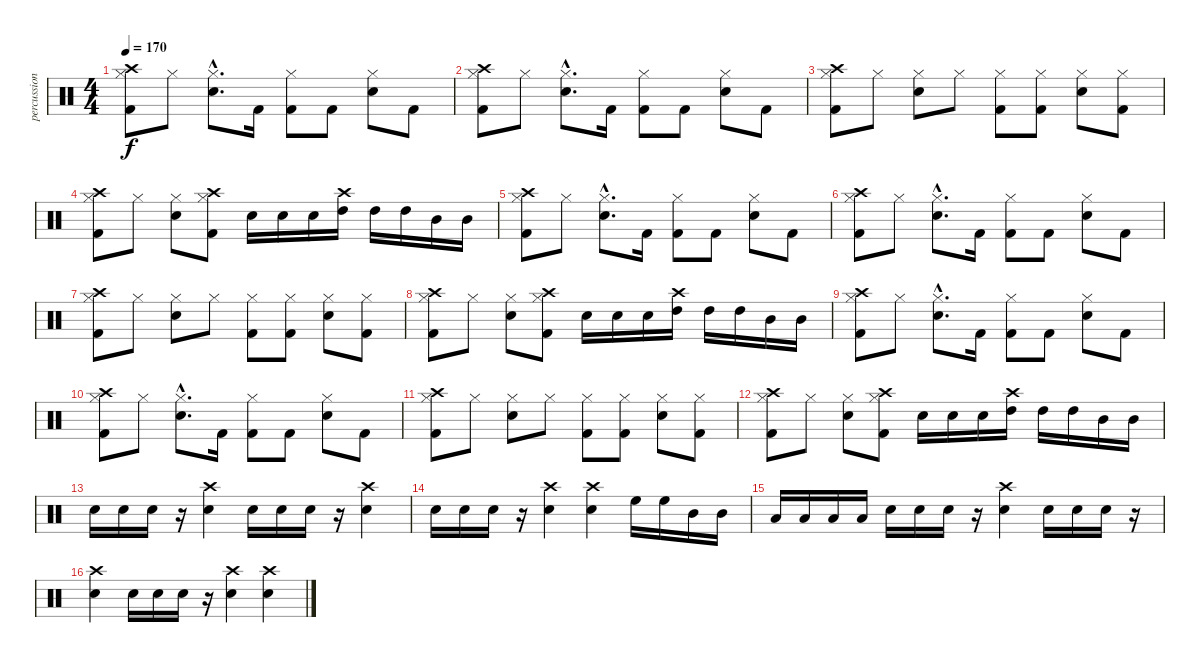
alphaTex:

\track ("percussion" "percussion") {instrument percussion}
\staff {score}
\articulation defaults
\ts (4 4)
\tempo 170
\clef neutral
\ks c
("Crash high (hit)" "Hi-Hat (closed)" "Kick (hit) 2").8{dy f} "Hi-Hat (closed)".8 ("Hi-Hat (closed)"{hac} "Snare (hit) 2"{hac}).8{d} "Kick (hit) 2".16 ("Hi-Hat (closed)" "Kick (hit) 2").8 "Kick (hit) 2".8 ("Hi-Hat (closed)" "Snare (hit) 2").8 "Kick (hit) 2".8 |
("Crash high (hit)" "Hi-Hat (closed)" "Kick (hit) 2").8 "Hi-Hat (closed)".8 ("Hi-Hat (closed)"{hac} "Snare (hit) 2"{hac}).8{d} "Kick (hit) 2".16 ("Hi-Hat (closed)" "Kick (hit) 2").8 "Kick (hit) 2".8 ("Hi-Hat (closed)" "Snare (hit) 2").8 "Kick (hit) 2".8 |
("Crash high (hit)" "Hi-Hat (closed)" "Kick (hit) 2").8 "Hi-Hat (closed)".8 ("Hi-Hat (closed)" "Snare (hit) 2").8 "Hi-Hat (closed)".8 ("Hi-Hat (closed)" "Kick (hit) 2").8 ("Hi-Hat (closed)" "Kick (hit) 2").8 ("Hi-Hat (closed)" "Snare (hit) 2").8 ("Hi-Hat (closed)" "Kick (hit) 2").8 |
("Crash high (hit)" "Hi-Hat (closed)" "Kick (hit) 2").8 "Hi-Hat (closed)".8 ("Hi-Hat (closed)" "Snare (hit) 2").8 ("Crash high (hit)" "Hi-Hat (closed)" "Kick (hit) 2").8 "Snare (hit) 2".16 "Snare (hit) 2".16 "Snare (hit) 2".16 ("Crash high (hit)" "High Tom (hit)").16 "High Tom (hit)".16 "High Tom (hit)".16 "Mid Tom (hit)".16 "Mid Tom (hit)".16 |
("Crash high (hit)" "Hi-Hat (closed)" "Kick (hit) 2").8 "Hi-Hat (closed)".8 ("Hi-Hat (closed)"{hac} "Snare (hit) 2"{hac}).8{d} "Kick (hit) 2".16 ("Hi-Hat (closed)" "Kick (hit) 2").8 "Kick (hit) 2".8 ("Hi-Hat (closed)" "Snare (hit) 2").8 "Kick (hit) 2".8 |
("Crash high (hit)" "Hi-Hat (closed)" "Kick (hit) 2").8 "Hi-Hat (closed)".8 ("Hi-Hat (closed)"{hac} "Snare (hit) 2"{hac}).8{d} "Kick (hit) 2".16 ("Hi-Hat (closed)" "Kick (hit) 2").8 "Kick (hit) 2".8 ("Hi-Hat (closed)" "Snare (hit) 2").8 "Kick (hit) 2".8 |
("Crash high (hit)" "Hi-Hat (closed)" "Kick (hit) 2").8 "Hi-Hat (closed)".8 ("Hi-Hat (closed)" "Snare (hit) 2").8 "Hi-Hat (closed)".8 ("Hi-Hat (closed)" "Kick (hit) 2").8 ("Hi-Hat (closed)" "Kick (hit) 2").8 ("Hi-Hat (closed)" "Snare (hit) 2").8 ("Hi-Hat (closed)" "Kick (hit) 2").8 |
("Crash high (hit)" "Hi-Hat (closed)" "Kick (hit) 2").8 "Hi-Hat (closed)".8 ("Hi-Hat (closed)" "Snare (hit) 2").8 ("Crash high (hit)" "Hi-Hat (closed)" "Kick (hit) 2").8 "Snare (hit) 2".16 "Snare (hit) 2".16 "Snare (hit) 2".16 ("Crash high (hit)" "High Tom (hit)").16 "High Tom (hit)".16 "High Tom (hit)".16 "Mid Tom (hit)".16 "Mid Tom (hit)".16 |
("Crash high (hit)" "Hi-Hat (closed)" "Kick (hit) 2").8 "Hi-Hat (closed)".8 ("Hi-Hat (closed)"{hac} "Snare (hit) 2"{hac}).8{d} "Kick (hit) 2".16 ("Hi-Hat (closed)" "Kick (hit) 2").8 "Kick (hit) 2".8 ("Hi-Hat (closed)" "Snare (hit) 2").8 "Kick (hit) 2".8 |
("Crash high (hit)" "Hi-Hat (closed)" "Kick (hit) 2").8 "Hi-Hat (closed)".8 ("Hi-Hat (closed)"{hac} "Snare (hit) 2"{hac}).8{d} "Kick (hit) 2".16 ("Hi-Hat (closed)" "Kick (hit) 2").8 "Kick (hit) 2".8 ("Hi-Hat (closed)" "Snare (hit) 2").8 "Kick (hit) 2".8 |
("Crash high (hit)" "Hi-Hat (closed)" "Kick (hit) 2").8 "Hi-Hat (closed)".8 ("Hi-Hat (closed)" "Snare (hit) 2").8 "Hi-Hat (closed)".8 ("Hi-Hat (closed)" "Kick (hit) 2").8 ("Hi-Hat (closed)" "Kick (hit) 2").8 ("Hi-Hat (closed)" "Snare (hit) 2").8 ("Hi-Hat (closed)" "Kick (hit) 2").8 |
("Crash high (hit)" "Hi-Hat (closed)" "Kick (hit) 2").8 "Hi-Hat (closed)".8 ("Hi-Hat (closed)" "Snare (hit) 2").8 ("Crash high (hit)" "Hi-Hat (closed)" "Kick (hit) 2").8 "Snare (hit) 2".16 "Snare (hit) 2".16 "Snare (hit) 2".16 ("Crash high (hit)" "High Tom (hit)").16 "High Tom (hit)".16 "High Tom (hit)".16 "Mid Tom (hit)".16 "Mid Tom (hit)".16 |
"Snare (hit) 2".16 "Snare (hit) 2".16 "Snare (hit) 2".16 r.16 ("Crash high (hit)" "Snare (hit) 2").4 "Snare (hit) 2".16 "Snare (hit) 2".16 "Snare (hit) 2".16 r.16 ("Crash high (hit)" "Snare (hit) 2").4 |
"Snare (hit) 2".16 "Snare (hit) 2".16 "Snare (hit) 2".16 r.16 ("Crash high (hit)" "Snare (hit) 2").4 ("Crash high (hit)" "Snare (hit) 2").4 "High Floor Tom (hit)".16 "High Floor Tom (hit)".16 "Mid Tom (hit)".16 "Mid Tom (hit)".16 |
"Low Tom (hit)".16 "Low Tom (hit)".16 "Low Floor Tom (hit)".16 "Low Floor Tom (hit)".16 "Snare (hit) 2".16 "Snare (hit) 2".16 "Snare (hit) 2".16 r.16 ("Crash high (hit)" "Snare (hit) 2").4 "Snare (hit) 2".16 "Snare (hit) 2".16 "Snare (hit) 2".16 r.16 |
("Crash high (hit)" "Snare (hit) 2").4 "Snare (hit) 2".16 "Snare (hit) 2".16 "Snare (hit) 2".16 r.16 ("Crash high (hit)" "Snare (hit) 2").4 ("Crash high (hit)" "Snare (hit) 2").4
